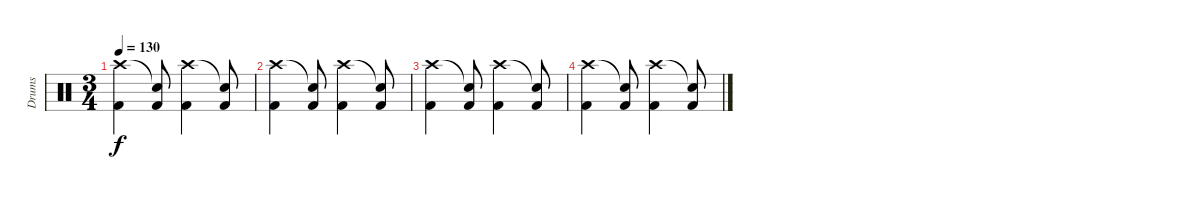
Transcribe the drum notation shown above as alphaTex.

\track ("Drums" "Drums") {instrument percussion}
\staff {score}
\articulation defaults
\ts (3 4)
\tempo 130
\clef neutral
\ks c
("Crash high (hit)" "Kick (hit) 2").4{dy f} ("Snare (hit)"{t} "Kick (hit) 2").8 ("Crash high (hit)" "Kick (hit) 2").4 ("Snare (hit)"{t} "Kick (hit) 2").8 |
("Crash high (hit)" "Kick (hit) 2").4 ("Snare (hit)"{t} "Kick (hit) 2").8 ("Crash high (hit)" "Kick (hit) 2").4 ("Snare (hit)"{t} "Kick (hit) 2").8 |
("Crash high (hit)" "Kick (hit) 2").4 ("Snare (hit)"{t} "Kick (hit) 2").8 ("Crash high (hit)" "Kick (hit) 2").4 ("Snare (hit)"{t} "Kick (hit) 2").8 |
("Crash high (hit)" "Kick (hit) 2").4 ("Snare (hit)"{t} "Kick (hit) 2").8 ("Crash high (hit)" "Kick (hit) 2").4 ("Snare (hit)"{t} "Kick (hit) 2").8
